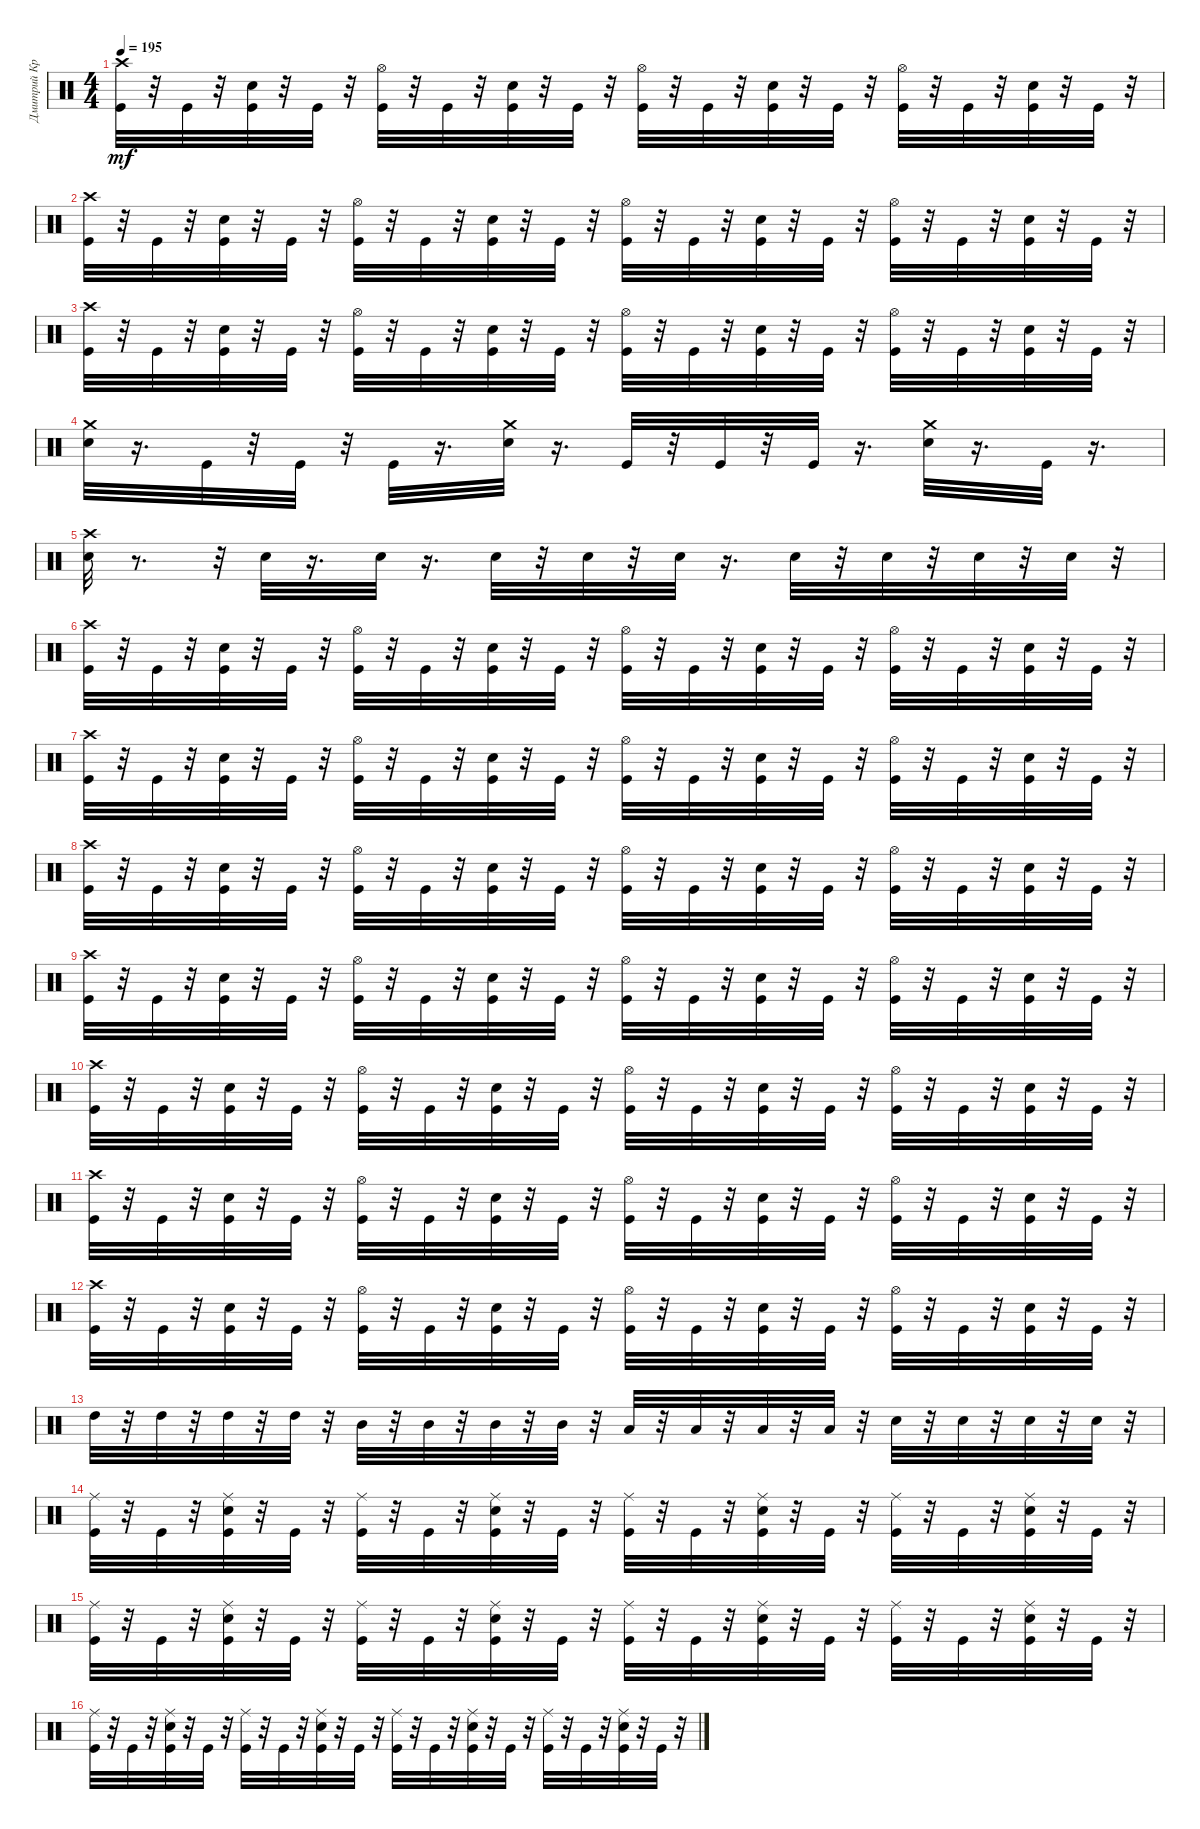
\track ("Дмитрий Кривенков" "Дмитрий Кр") {instrument percussion}
\staff {score}
\articulation defaults
\ts (4 4)
\tempo 195
\clef neutral
\ks c
("Crash high (hit)" "Kick (hit)").32{dy mf} r.32 "Kick (hit)".32 r.32 ("Electric Snare (hit)" "Kick (hit)").32 r.32 "Kick (hit)".32 r.32 ("Hi-Hat (open)" "Kick (hit)").32 r.32 "Kick (hit)".32 r.32 ("Electric Snare (hit)" "Kick (hit)").32 r.32 "Kick (hit)".32 r.32 ("Hi-Hat (open)" "Kick (hit)").32 r.32 "Kick (hit)".32 r.32 ("Electric Snare (hit)" "Kick (hit)").32 r.32 "Kick (hit)".32 r.32 ("Hi-Hat (open)" "Kick (hit)").32 r.32 "Kick (hit)".32 r.32 ("Electric Snare (hit)" "Kick (hit)").32 r.32 "Kick (hit)".32 r.32 |
("Crash high (hit)" "Kick (hit)").32 r.32 "Kick (hit)".32 r.32 ("Electric Snare (hit)" "Kick (hit)").32 r.32 "Kick (hit)".32 r.32 ("Hi-Hat (open)" "Kick (hit)").32 r.32 "Kick (hit)".32 r.32 ("Electric Snare (hit)" "Kick (hit)").32 r.32 "Kick (hit)".32 r.32 ("Hi-Hat (open)" "Kick (hit)").32 r.32 "Kick (hit)".32 r.32 ("Electric Snare (hit)" "Kick (hit)").32 r.32 "Kick (hit)".32 r.32 ("Hi-Hat (open)" "Kick (hit)").32 r.32 "Kick (hit)".32 r.32 ("Electric Snare (hit)" "Kick (hit)").32 r.32 "Kick (hit)".32 r.32 |
("Crash high (hit)" "Kick (hit)").32 r.32 "Kick (hit)".32 r.32 ("Electric Snare (hit)" "Kick (hit)").32 r.32 "Kick (hit)".32 r.32 ("Hi-Hat (open)" "Kick (hit)").32 r.32 "Kick (hit)".32 r.32 ("Electric Snare (hit)" "Kick (hit)").32 r.32 "Kick (hit)".32 r.32 ("Hi-Hat (open)" "Kick (hit)").32 r.32 "Kick (hit)".32 r.32 ("Electric Snare (hit)" "Kick (hit)").32 r.32 "Kick (hit)".32 r.32 ("Hi-Hat (open)" "Kick (hit)").32 r.32 "Kick (hit)".32 r.32 ("Electric Snare (hit)" "Kick (hit)").32 r.32 "Kick (hit)".32 r.32 |
("Crash medium (hit)" "Electric Snare (hit)").32 r.16{d} "Kick (hit)".32 r.32 "Kick (hit)".32 r.32 "Kick (hit)".32 r.16{d} ("Crash medium (hit)" "Electric Snare (hit)").32 r.16{d} "Kick (hit)".32 r.32 "Kick (hit)".32 r.32 "Kick (hit)".32 r.16{d} ("Electric Snare (hit)" "Crash medium (hit)").32 r.16{d} "Kick (hit)".32 r.16{d} |
("Crash high (hit)" "Electric Snare (hit)").32 r.8{d} r.32 "Electric Snare (hit)".32 r.16{d} "Electric Snare (hit)".32 r.16{d} "Electric Snare (hit)".32 r.32 "Electric Snare (hit)".32 r.32 "Electric Snare (hit)".32 r.16{d} "Electric Snare (hit)".32 r.32 "Electric Snare (hit)".32 r.32 "Electric Snare (hit)".32 r.32 "Electric Snare (hit)".32 r.32 |
("Crash high (hit)" "Kick (hit)").32 r.32 "Kick (hit)".32 r.32 ("Electric Snare (hit)" "Kick (hit)").32 r.32 "Kick (hit)".32 r.32 ("Hi-Hat (open)" "Kick (hit)").32 r.32 "Kick (hit)".32 r.32 ("Electric Snare (hit)" "Kick (hit)").32 r.32 "Kick (hit)".32 r.32 ("Hi-Hat (open)" "Kick (hit)").32 r.32 "Kick (hit)".32 r.32 ("Electric Snare (hit)" "Kick (hit)").32 r.32 "Kick (hit)".32 r.32 ("Hi-Hat (open)" "Kick (hit)").32 r.32 "Kick (hit)".32 r.32 ("Electric Snare (hit)" "Kick (hit)").32 r.32 "Kick (hit)".32 r.32 |
("Crash high (hit)" "Kick (hit)").32 r.32 "Kick (hit)".32 r.32 ("Electric Snare (hit)" "Kick (hit)").32 r.32 "Kick (hit)".32 r.32 ("Hi-Hat (open)" "Kick (hit)").32 r.32 "Kick (hit)".32 r.32 ("Electric Snare (hit)" "Kick (hit)").32 r.32 "Kick (hit)".32 r.32 ("Hi-Hat (open)" "Kick (hit)").32 r.32 "Kick (hit)".32 r.32 ("Electric Snare (hit)" "Kick (hit)").32 r.32 "Kick (hit)".32 r.32 ("Hi-Hat (open)" "Kick (hit)").32 r.32 "Kick (hit)".32 r.32 ("Electric Snare (hit)" "Kick (hit)").32 r.32 "Kick (hit)".32 r.32 |
("Crash high (hit)" "Kick (hit)").32 r.32 "Kick (hit)".32 r.32 ("Electric Snare (hit)" "Kick (hit)").32 r.32 "Kick (hit)".32 r.32 ("Hi-Hat (open)" "Kick (hit)").32 r.32 "Kick (hit)".32 r.32 ("Electric Snare (hit)" "Kick (hit)").32 r.32 "Kick (hit)".32 r.32 ("Hi-Hat (open)" "Kick (hit)").32 r.32 "Kick (hit)".32 r.32 ("Electric Snare (hit)" "Kick (hit)").32 r.32 "Kick (hit)".32 r.32 ("Hi-Hat (open)" "Kick (hit)").32 r.32 "Kick (hit)".32 r.32 ("Electric Snare (hit)" "Kick (hit)").32 r.32 "Kick (hit)".32 r.32 |
("Crash high (hit)" "Kick (hit)").32 r.32 "Kick (hit)".32 r.32 ("Electric Snare (hit)" "Kick (hit)").32 r.32 "Kick (hit)".32 r.32 ("Hi-Hat (open)" "Kick (hit)").32 r.32 "Kick (hit)".32 r.32 ("Electric Snare (hit)" "Kick (hit)").32 r.32 "Kick (hit)".32 r.32 ("Hi-Hat (open)" "Kick (hit)").32 r.32 "Kick (hit)".32 r.32 ("Electric Snare (hit)" "Kick (hit)").32 r.32 "Kick (hit)".32 r.32 ("Hi-Hat (open)" "Kick (hit)").32 r.32 "Kick (hit)".32 r.32 ("Electric Snare (hit)" "Kick (hit)").32 r.32 "Kick (hit)".32 r.32 |
("Crash high (hit)" "Kick (hit)").32 r.32 "Kick (hit)".32 r.32 ("Electric Snare (hit)" "Kick (hit)").32 r.32 "Kick (hit)".32 r.32 ("Hi-Hat (open)" "Kick (hit)").32 r.32 "Kick (hit)".32 r.32 ("Electric Snare (hit)" "Kick (hit)").32 r.32 "Kick (hit)".32 r.32 ("Hi-Hat (open)" "Kick (hit)").32 r.32 "Kick (hit)".32 r.32 ("Electric Snare (hit)" "Kick (hit)").32 r.32 "Kick (hit)".32 r.32 ("Hi-Hat (open)" "Kick (hit)").32 r.32 "Kick (hit)".32 r.32 ("Electric Snare (hit)" "Kick (hit)").32 r.32 "Kick (hit)".32 r.32 |
("Crash high (hit)" "Kick (hit)").32 r.32 "Kick (hit)".32 r.32 ("Electric Snare (hit)" "Kick (hit)").32 r.32 "Kick (hit)".32 r.32 ("Hi-Hat (open)" "Kick (hit)").32 r.32 "Kick (hit)".32 r.32 ("Electric Snare (hit)" "Kick (hit)").32 r.32 "Kick (hit)".32 r.32 ("Hi-Hat (open)" "Kick (hit)").32 r.32 "Kick (hit)".32 r.32 ("Electric Snare (hit)" "Kick (hit)").32 r.32 "Kick (hit)".32 r.32 ("Hi-Hat (open)" "Kick (hit)").32 r.32 "Kick (hit)".32 r.32 ("Electric Snare (hit)" "Kick (hit)").32 r.32 "Kick (hit)".32 r.32 |
("Crash high (hit)" "Kick (hit)").32 r.32 "Kick (hit)".32 r.32 ("Electric Snare (hit)" "Kick (hit)").32 r.32 "Kick (hit)".32 r.32 ("Hi-Hat (open)" "Kick (hit)").32 r.32 "Kick (hit)".32 r.32 ("Electric Snare (hit)" "Kick (hit)").32 r.32 "Kick (hit)".32 r.32 ("Hi-Hat (open)" "Kick (hit)").32 r.32 "Kick (hit)".32 r.32 ("Electric Snare (hit)" "Kick (hit)").32 r.32 "Kick (hit)".32 r.32 ("Hi-Hat (open)" "Kick (hit)").32 r.32 "Kick (hit)".32 r.32 ("Electric Snare (hit)" "Kick (hit)").32 r.32 "Kick (hit)".32 r.32 |
"High Tom (hit)".32 r.32 "High Tom (hit)".32 r.32 "High Tom (hit)".32 r.32 "High Tom (hit)".32 r.32 "Mid Tom (hit)".32 r.32 "Mid Tom (hit)".32 r.32 "Mid Tom (hit)".32 r.32 "Mid Tom (hit)".32 r.32 "Low Tom (hit)".32 r.32 "Low Tom (hit)".32 r.32 "Low Tom (hit)".32 r.32 "Low Tom (hit)".32 r.32 "Electric Snare (hit)".32 r.32 "Electric Snare (hit)".32 r.32 "Electric Snare (hit)".32 r.32 "Electric Snare (hit)".32 r.32 |
("Ride (middle)" "Kick (hit)").32 r.32 "Kick (hit)".32 r.32 ("Electric Snare (hit)" "Kick (hit)" "Ride (middle)").32 r.32 "Kick (hit)".32 r.32 ("Ride (middle)" "Kick (hit)").32 r.32 "Kick (hit)".32 r.32 ("Ride (middle)" "Electric Snare (hit)" "Kick (hit)").32 r.32 "Kick (hit)".32 r.32 ("Ride (middle)" "Kick (hit)").32 r.32 "Kick (hit)".32 r.32 ("Electric Snare (hit)" "Kick (hit)" "Ride (middle)").32 r.32 "Kick (hit)".32 r.32 ("Ride (middle)" "Kick (hit)").32 r.32 "Kick (hit)".32 r.32 ("Ride (middle)" "Electric Snare (hit)" "Kick (hit)").32 r.32 "Kick (hit)".32 r.32 |
("Ride (middle)" "Kick (hit)").32 r.32 "Kick (hit)".32 r.32 ("Electric Snare (hit)" "Kick (hit)" "Ride (middle)").32 r.32 "Kick (hit)".32 r.32 ("Ride (middle)" "Kick (hit)").32 r.32 "Kick (hit)".32 r.32 ("Ride (middle)" "Electric Snare (hit)" "Kick (hit)").32 r.32 "Kick (hit)".32 r.32 ("Ride (middle)" "Kick (hit)").32 r.32 "Kick (hit)".32 r.32 ("Electric Snare (hit)" "Kick (hit)" "Ride (middle)").32 r.32 "Kick (hit)".32 r.32 ("Ride (middle)" "Kick (hit)").32 r.32 "Kick (hit)".32 r.32 ("Ride (middle)" "Electric Snare (hit)" "Kick (hit)").32 r.32 "Kick (hit)".32 r.32 |
("Ride (middle)" "Kick (hit)").32 r.32 "Kick (hit)".32 r.32 ("Electric Snare (hit)" "Kick (hit)" "Ride (middle)").32 r.32 "Kick (hit)".32 r.32 ("Ride (middle)" "Kick (hit)").32 r.32 "Kick (hit)".32 r.32 ("Ride (middle)" "Electric Snare (hit)" "Kick (hit)").32 r.32 "Kick (hit)".32 r.32 ("Ride (middle)" "Kick (hit)").32 r.32 "Kick (hit)".32 r.32 ("Electric Snare (hit)" "Kick (hit)" "Ride (middle)").32 r.32 "Kick (hit)".32 r.32 ("Ride (middle)" "Kick (hit)").32 r.32 "Kick (hit)".32 r.32 ("Ride (middle)" "Electric Snare (hit)" "Kick (hit)").32 r.32 "Kick (hit)".32 r.32
